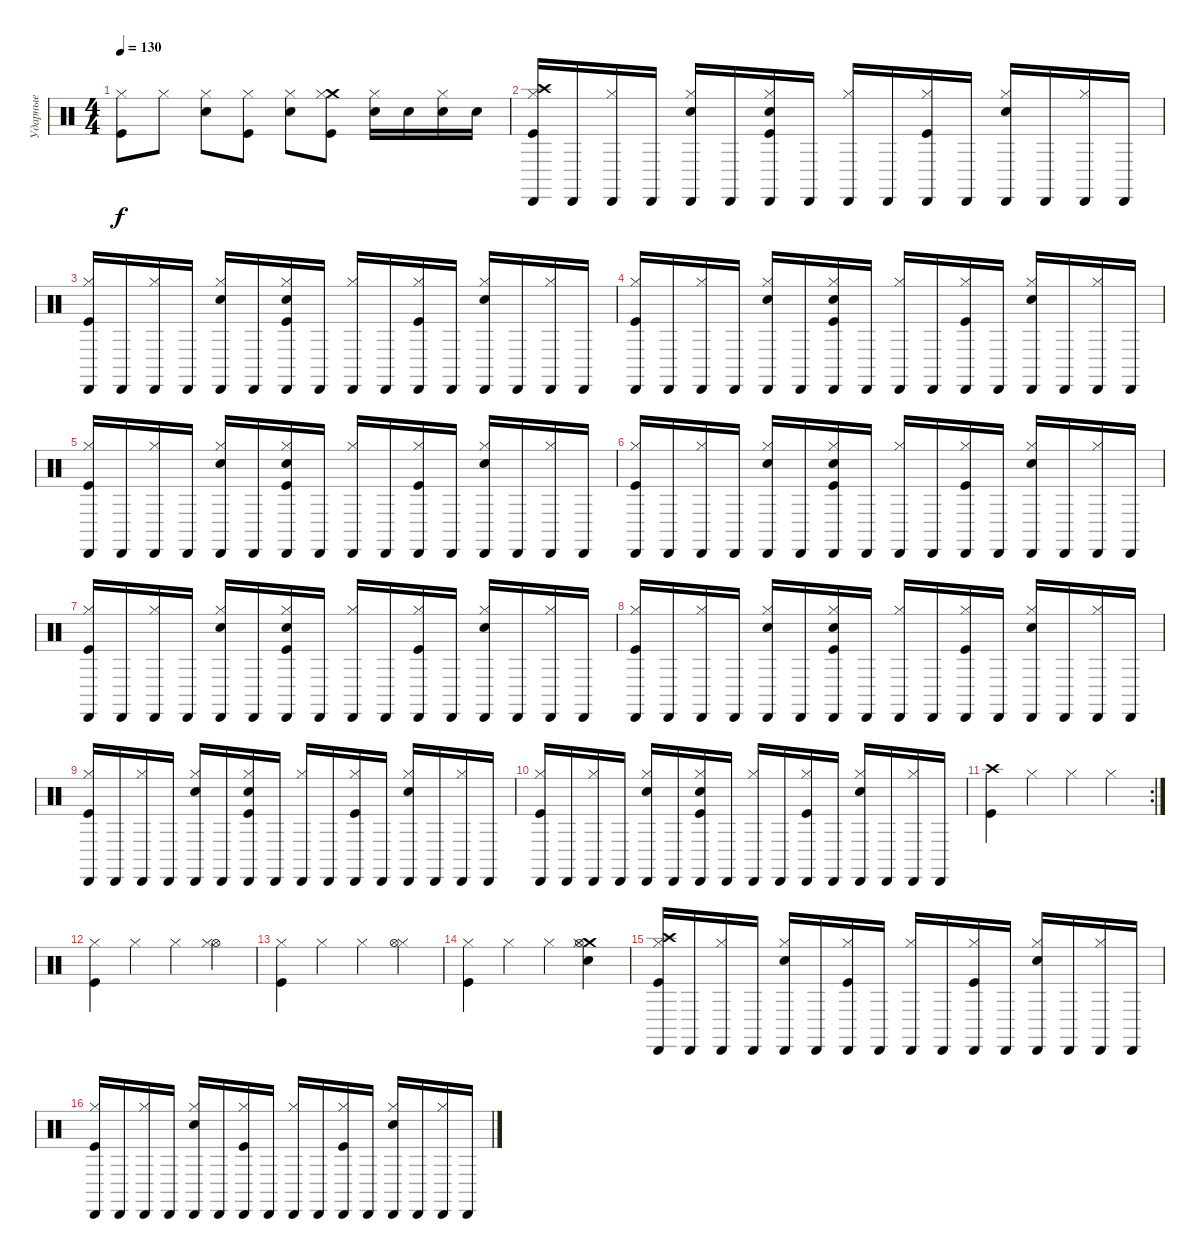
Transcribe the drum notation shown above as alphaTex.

\track ("Ударные" "Ударные") {instrument percussion}
\staff {score}
\articulation defaults
\ts (4 4)
\tempo 130
\clef neutral
\ks c
("Hi-Hat (closed)" "Kick (hit)").8{dy f} "Hi-Hat (closed)".8 ("Hi-Hat (closed)" "Electric Snare (hit)").8 ("Hi-Hat (closed)" "Kick (hit)").8 ("Hi-Hat (closed)" "Electric Snare (hit)").8 ("Crash medium (hit)" "Hi-Hat (closed)" "Kick (hit)").8 ("Hi-Hat (closed)" "Electric Snare (hit)").16 "Electric Snare (hit)".16 ("Hi-Hat (closed)" "Electric Snare (hit)").16 "Electric Snare (hit)".16 |
("Cabasa (hit)" "Crash high (hit)" "Hi-Hat (closed)" "Kick (hit)").16 "Cabasa (hit)".16 ("Cabasa (hit)" "Hi-Hat (closed)").16 "Cabasa (hit)".16 ("Cabasa (hit)" "Hi-Hat (closed)" "Electric Snare (hit)").16 "Cabasa (hit)".16 ("Cabasa (hit)" "Hi-Hat (closed)" "Kick (hit)" "Electric Snare (hit)").16 "Cabasa (hit)".16 ("Cabasa (hit)" "Hi-Hat (closed)").16 "Cabasa (hit)".16 ("Cabasa (hit)" "Hi-Hat (closed)" "Kick (hit)").16 "Cabasa (hit)".16 ("Cabasa (hit)" "Hi-Hat (closed)" "Electric Snare (hit)").16 "Cabasa (hit)".16 ("Cabasa (hit)" "Hi-Hat (closed)").16 "Cabasa (hit)".16 |
("Cabasa (hit)" "Hi-Hat (closed)" "Kick (hit)").16 "Cabasa (hit)".16 ("Cabasa (hit)" "Hi-Hat (closed)").16 "Cabasa (hit)".16 ("Cabasa (hit)" "Hi-Hat (closed)" "Electric Snare (hit)").16 "Cabasa (hit)".16 ("Cabasa (hit)" "Hi-Hat (closed)" "Electric Snare (hit)" "Kick (hit)").16 "Cabasa (hit)".16 ("Cabasa (hit)" "Hi-Hat (closed)").16 "Cabasa (hit)".16 ("Cabasa (hit)" "Hi-Hat (closed)" "Kick (hit)").16 "Cabasa (hit)".16 ("Cabasa (hit)" "Hi-Hat (closed)" "Electric Snare (hit)").16 "Cabasa (hit)".16 ("Cabasa (hit)" "Hi-Hat (closed)").16 "Cabasa (hit)".16 |
("Cabasa (hit)" "Hi-Hat (closed)" "Kick (hit)").16 "Cabasa (hit)".16 ("Cabasa (hit)" "Hi-Hat (closed)").16 "Cabasa (hit)".16 ("Cabasa (hit)" "Hi-Hat (closed)" "Electric Snare (hit)").16 "Cabasa (hit)".16 ("Cabasa (hit)" "Hi-Hat (closed)" "Electric Snare (hit)" "Kick (hit)").16 "Cabasa (hit)".16 ("Cabasa (hit)" "Hi-Hat (closed)").16 "Cabasa (hit)".16 ("Cabasa (hit)" "Hi-Hat (closed)" "Kick (hit)").16 "Cabasa (hit)".16 ("Cabasa (hit)" "Hi-Hat (closed)" "Electric Snare (hit)").16 "Cabasa (hit)".16 ("Cabasa (hit)" "Hi-Hat (closed)").16 "Cabasa (hit)".16 |
("Cabasa (hit)" "Hi-Hat (closed)" "Kick (hit)").16 "Cabasa (hit)".16 ("Cabasa (hit)" "Hi-Hat (closed)").16 "Cabasa (hit)".16 ("Cabasa (hit)" "Hi-Hat (closed)" "Electric Snare (hit)").16 "Cabasa (hit)".16 ("Cabasa (hit)" "Hi-Hat (closed)" "Electric Snare (hit)" "Kick (hit)").16 "Cabasa (hit)".16 ("Cabasa (hit)" "Hi-Hat (closed)").16 "Cabasa (hit)".16 ("Cabasa (hit)" "Hi-Hat (closed)" "Kick (hit)").16 "Cabasa (hit)".16 ("Cabasa (hit)" "Hi-Hat (closed)" "Electric Snare (hit)").16 "Cabasa (hit)".16 ("Cabasa (hit)" "Hi-Hat (closed)").16 "Cabasa (hit)".16 |
("Cabasa (hit)" "Hi-Hat (closed)" "Kick (hit)").16 "Cabasa (hit)".16 ("Cabasa (hit)" "Hi-Hat (closed)").16 "Cabasa (hit)".16 ("Cabasa (hit)" "Hi-Hat (closed)" "Electric Snare (hit)").16 "Cabasa (hit)".16 ("Cabasa (hit)" "Hi-Hat (closed)" "Electric Snare (hit)" "Kick (hit)").16 "Cabasa (hit)".16 ("Cabasa (hit)" "Hi-Hat (closed)").16 "Cabasa (hit)".16 ("Cabasa (hit)" "Hi-Hat (closed)" "Kick (hit)").16 "Cabasa (hit)".16 ("Cabasa (hit)" "Hi-Hat (closed)" "Electric Snare (hit)").16 "Cabasa (hit)".16 ("Cabasa (hit)" "Hi-Hat (closed)").16 "Cabasa (hit)".16 |
("Cabasa (hit)" "Hi-Hat (closed)" "Kick (hit)").16 "Cabasa (hit)".16 ("Cabasa (hit)" "Hi-Hat (closed)").16 "Cabasa (hit)".16 ("Cabasa (hit)" "Hi-Hat (closed)" "Electric Snare (hit)").16 "Cabasa (hit)".16 ("Cabasa (hit)" "Hi-Hat (closed)" "Electric Snare (hit)" "Kick (hit)").16 "Cabasa (hit)".16 ("Cabasa (hit)" "Hi-Hat (closed)").16 "Cabasa (hit)".16 ("Cabasa (hit)" "Hi-Hat (closed)" "Kick (hit)").16 "Cabasa (hit)".16 ("Cabasa (hit)" "Hi-Hat (closed)" "Electric Snare (hit)").16 "Cabasa (hit)".16 ("Cabasa (hit)" "Hi-Hat (closed)").16 "Cabasa (hit)".16 |
("Cabasa (hit)" "Hi-Hat (closed)" "Kick (hit)").16 "Cabasa (hit)".16 ("Cabasa (hit)" "Hi-Hat (closed)").16 "Cabasa (hit)".16 ("Cabasa (hit)" "Hi-Hat (closed)" "Electric Snare (hit)").16 "Cabasa (hit)".16 ("Cabasa (hit)" "Hi-Hat (closed)" "Electric Snare (hit)" "Kick (hit)").16 "Cabasa (hit)".16 ("Cabasa (hit)" "Hi-Hat (closed)").16 "Cabasa (hit)".16 ("Cabasa (hit)" "Hi-Hat (closed)" "Kick (hit)").16 "Cabasa (hit)".16 ("Cabasa (hit)" "Hi-Hat (closed)" "Electric Snare (hit)").16 "Cabasa (hit)".16 ("Cabasa (hit)" "Hi-Hat (closed)").16 "Cabasa (hit)".16 |
("Cabasa (hit)" "Hi-Hat (closed)" "Kick (hit)").16 "Cabasa (hit)".16 ("Cabasa (hit)" "Hi-Hat (closed)").16 "Cabasa (hit)".16 ("Cabasa (hit)" "Hi-Hat (closed)" "Electric Snare (hit)").16 "Cabasa (hit)".16 ("Cabasa (hit)" "Hi-Hat (closed)" "Electric Snare (hit)" "Kick (hit)").16 "Cabasa (hit)".16 ("Cabasa (hit)" "Hi-Hat (closed)").16 "Cabasa (hit)".16 ("Cabasa (hit)" "Hi-Hat (closed)" "Kick (hit)").16 "Cabasa (hit)".16 ("Cabasa (hit)" "Hi-Hat (closed)" "Electric Snare (hit)").16 "Cabasa (hit)".16 ("Cabasa (hit)" "Hi-Hat (closed)").16 "Cabasa (hit)".16 |
("Cabasa (hit)" "Hi-Hat (closed)" "Kick (hit)").16 "Cabasa (hit)".16 ("Cabasa (hit)" "Hi-Hat (closed)").16 "Cabasa (hit)".16 ("Cabasa (hit)" "Hi-Hat (closed)" "Electric Snare (hit)").16 "Cabasa (hit)".16 ("Cabasa (hit)" "Hi-Hat (closed)" "Electric Snare (hit)" "Kick (hit)").16 "Cabasa (hit)".16 ("Cabasa (hit)" "Hi-Hat (closed)").16 "Cabasa (hit)".16 ("Cabasa (hit)" "Hi-Hat (closed)" "Kick (hit)").16 "Cabasa (hit)".16 ("Cabasa (hit)" "Hi-Hat (closed)" "Electric Snare (hit)").16 "Cabasa (hit)".16 ("Cabasa (hit)" "Hi-Hat (closed)").16 "Cabasa (hit)".16 |
\rc 2
("Crash high (hit)" "Kick (hit)").4 "Hi-Hat (closed)".4 "Hi-Hat (closed)".4 "Hi-Hat (closed)".4 |
("Hi-Hat (closed)" "Kick (hit)").4 "Hi-Hat (closed)".4 "Hi-Hat (closed)".4 ("Hi-Hat (open)" "Hi-Hat (closed)").4 |
("Hi-Hat (closed)" "Kick (hit)").4 "Hi-Hat (closed)".4 "Hi-Hat (closed)".4 ("Hi-Hat (closed)" "Hi-Hat (open)").4 |
("Kick (hit)" "Hi-Hat (closed)").4 "Hi-Hat (closed)".4 "Hi-Hat (closed)".4 ("Crash medium (hit)" "Electric Snare (hit)" "Hi-Hat (open)" "Hi-Hat (closed)").4 |
("Cabasa (hit)" "Hi-Hat (closed)" "Kick (hit)" "Crash high (hit)").16 "Cabasa (hit)".16 ("Cabasa (hit)" "Hi-Hat (closed)").16 "Cabasa (hit)".16 ("Cabasa (hit)" "Hi-Hat (closed)" "Electric Snare (hit)").16 "Cabasa (hit)".16 ("Cabasa (hit)" "Hi-Hat (closed)" "Kick (hit)").16 "Cabasa (hit)".16 ("Cabasa (hit)" "Hi-Hat (closed)").16 "Cabasa (hit)".16 ("Cabasa (hit)" "Hi-Hat (closed)" "Kick (hit)").16 "Cabasa (hit)".16 ("Cabasa (hit)" "Hi-Hat (closed)" "Electric Snare (hit)").16 "Cabasa (hit)".16 ("Cabasa (hit)" "Hi-Hat (closed)").16 "Cabasa (hit)".16 |
("Cabasa (hit)" "Hi-Hat (closed)" "Kick (hit)").16 "Cabasa (hit)".16 ("Cabasa (hit)" "Hi-Hat (closed)").16 "Cabasa (hit)".16 ("Cabasa (hit)" "Hi-Hat (closed)" "Electric Snare (hit)").16 "Cabasa (hit)".16 ("Cabasa (hit)" "Hi-Hat (closed)" "Kick (hit)").16 "Cabasa (hit)".16 ("Cabasa (hit)" "Hi-Hat (closed)").16 "Cabasa (hit)".16 ("Cabasa (hit)" "Hi-Hat (closed)" "Kick (hit)").16 "Cabasa (hit)".16 ("Cabasa (hit)" "Hi-Hat (closed)" "Electric Snare (hit)").16 "Cabasa (hit)".16 ("Cabasa (hit)" "Hi-Hat (closed)").16 "Cabasa (hit)".16
